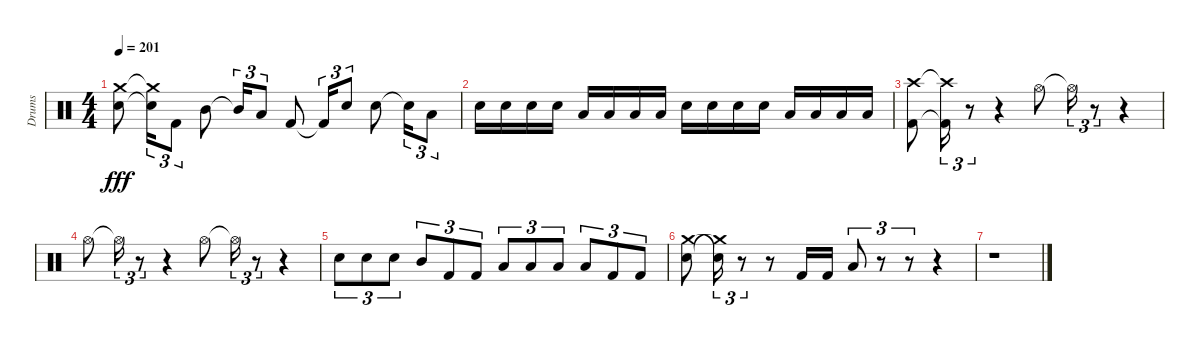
\track ("Drums" "Drums") {instrument percussion}
\staff {score}
\articulation defaults
\ts (4 4)
\tempo 201
\clef neutral
\ks aminor
("Crash medium (hit)" "Snare (hit) 2").8{dy fff} ("Crash medium (hit)"{t} "Snare (hit) 2"{t}).16{tu (3 2)} "Kick (hit) 2".8{tu (3 2)} "Mid Tom (hit)".8 "Mid Tom (hit)"{t}.16{tu (3 2)} "Low Tom (hit)".8{tu (3 2)} "Kick (hit) 2".8 "Kick (hit) 2"{t}.16{tu (3 2)} "Snare (hit) 2".8{tu (3 2)} "Snare (hit) 2".8 "Snare (hit) 2"{t}.16{tu (3 2)} "Low Floor Tom (hit)".8{tu (3 2)} |
"Snare (hit) 2".16 "Snare (hit) 2".16 "Snare (hit) 2".16 "Snare (hit) 2".16 "Low Tom (hit)".16 "Low Tom (hit)".16 "Low Tom (hit)".16 "Low Tom (hit)".16 "Snare (hit) 2".16 "Snare (hit) 2".16 "Snare (hit) 2".16 "Snare (hit) 2".16 "Low Floor Tom (hit)".16 "Low Floor Tom (hit)".16 "Low Floor Tom (hit)".16 "Low Floor Tom (hit)".16 |
("Crash high (hit)" "Kick (hit) 2").8 ("Crash high (hit)"{t} "Kick (hit) 2"{t}).16{tu (3 2)} r.8{tu (3 2)} r.4 "Hi-Hat (open)".8 "Hi-Hat (open)"{t}.16{tu (3 2)} r.8{tu (3 2)} r.4 |
"Hi-Hat (open)".8 "Hi-Hat (open)"{t}.16{tu (3 2)} r.8{tu (3 2)} r.4 "Hi-Hat (open)".8 "Hi-Hat (open)"{t}.16{tu (3 2)} r.8{tu (3 2)} r.4 |
"Snare (hit) 2".8{tu (3 2)} "Snare (hit) 2".8{tu (3 2)} "Snare (hit) 2".8{tu (3 2)} "Mid Tom (hit)".8{tu (3 2)} "Kick (hit) 2".8{tu (3 2)} "Kick (hit) 2".8{tu (3 2)} "Low Tom (hit)".8{tu (3 2)} "Low Tom (hit)".8{tu (3 2)} "Low Tom (hit)".8{tu (3 2)} "Low Floor Tom (hit)".8{tu (3 2)} "Kick (hit) 2".8{tu (3 2)} "Kick (hit) 2".8{tu (3 2)} |
("Crash medium (hit)" "Snare (hit) 2").8 ("Snare (hit) 2"{t} "Crash medium (hit)"{t}).16{tu (3 2)} r.8{tu (3 2)} r.8 "Kick (hit) 2".16 "Kick (hit) 2".16 "Low Floor Tom (hit)".8{tu (3 2)} r.8{tu (3 2)} r.8{tu (3 2)} r.4 |
r.1
